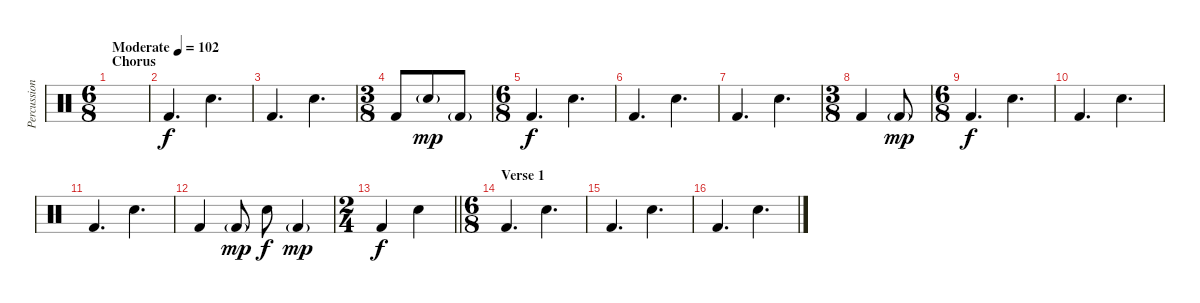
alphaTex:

\track ("Percussion" "Percussion") {instrument percussion}
\staff {score}
\articulation defaults
\ts (6 8)
\section ("" "Chorus")
\tempo (102 "Moderate")
\clef neutral
\ks c
|
"Kick (hit) 2".4{d} "Snare (hit) 2".4{d} |
"Kick (hit) 2".4{d} "Snare (hit) 2".4{d} |
\ts (3 8)
"Kick (hit) 2".8 "Snare (hit) 2"{g}.8{dy mp} "Kick (hit) 2"{g}.8 |
\ts (6 8)
"Kick (hit) 2".4{d dy f} "Snare (hit) 2".4{d} |
"Kick (hit) 2".4{d} "Snare (hit) 2".4{d} |
"Kick (hit) 2".4{d} "Snare (hit) 2".4{d} |
\ts (3 8)
"Kick (hit) 2".4 "Kick (hit) 2"{g}.8{dy mp} |
\ts (6 8)
"Kick (hit) 2".4{d dy f} "Snare (hit) 2".4{d} |
"Kick (hit) 2".4{d} "Snare (hit) 2".4{d} |
"Kick (hit) 2".4{d} "Snare (hit) 2".4{d} |
"Kick (hit) 2".4 "Kick (hit) 2"{g}.8{dy mp} "Snare (hit) 2".8{dy f} "Kick (hit) 2"{g}.4{dy mp} |
\ts (2 4)
\barLineRight lightlight "Kick (hit) 2".4{dy f} "Snare (hit) 2".4
|
\ts (6 8)
\section ("" "Verse 1")
"Kick (hit) 2".4{d} "Snare (hit) 2".4{d} |
"Kick (hit) 2".4{d} "Snare (hit) 2".4{d} |
"Kick (hit) 2".4{d} "Snare (hit) 2".4{d}
